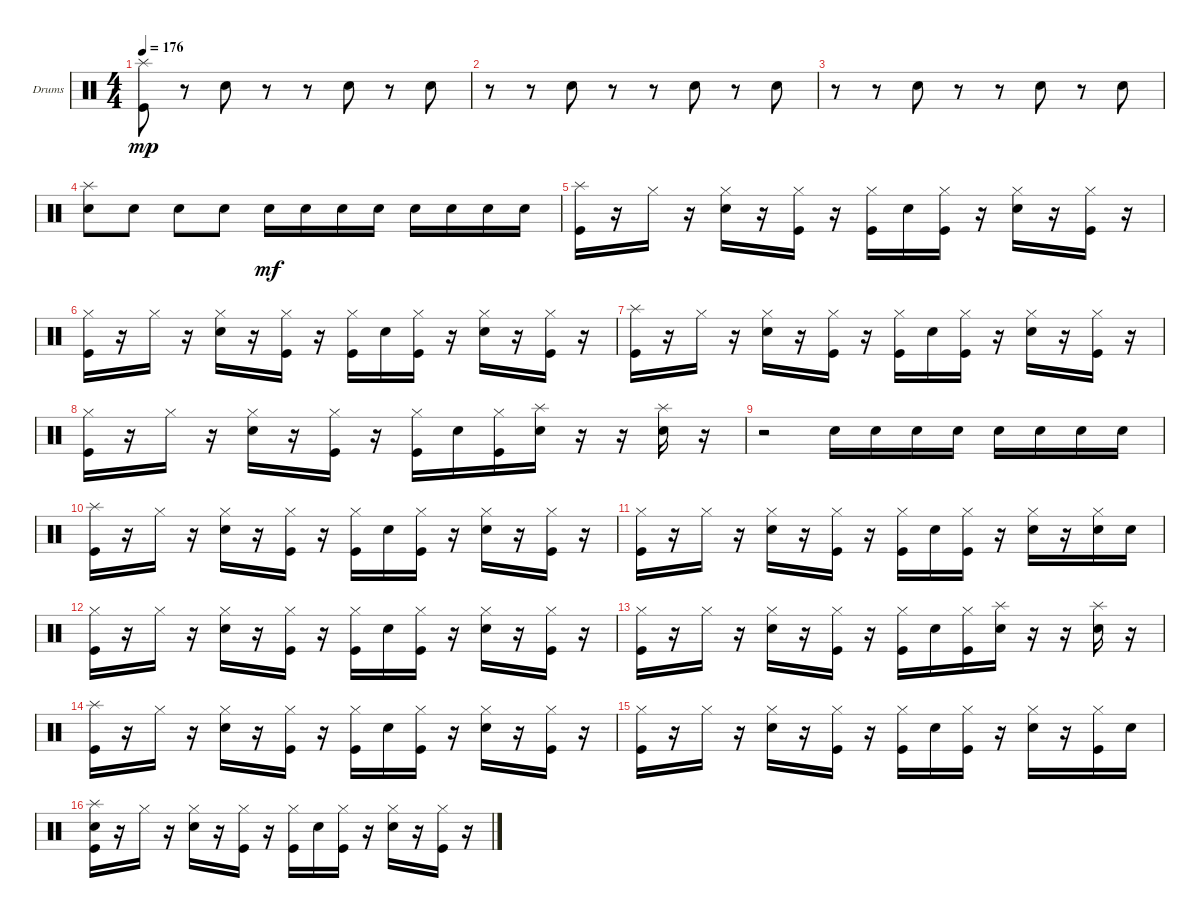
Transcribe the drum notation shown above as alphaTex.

\defaultSystemsLayout 4
\bracketExtendMode groupsimilarinstruments
\firstSystemTrackNameOrientation horizontal
\otherSystemsTrackNameOrientation horizontal
\track ("Drumkit" "Drums") {instrument percussion}
\staff {score}
\articulation defaults
\ts (4 4)
\tempo 176
\clef neutral
\scale
0.474178
\ks c
("Splash (hit)" "Kick (hit)").8{dy mp} r.8 "Snare (hit) 2".8 r.8 r.8 "Snare (hit) 2".8 r.8 "Snare (hit) 2".8 |
\scale
0.262911 r.8 r.8 "Snare (hit) 2".8 r.8 r.8 "Snare (hit) 2".8 r.8 "Snare (hit) 2".8 |
\scale
0.262911 r.8 r.8 "Snare (hit) 2".8 r.8 r.8 "Snare (hit) 2".8 r.8 "Snare (hit) 2".8 |
\scale
0.333333 ("Snare (hit) 2" "Splash (hit)").8 "Snare (hit) 2".8 "Snare (hit) 2".8 "Snare (hit) 2".8 "Snare (hit) 2".16{dy mf} "Snare (hit) 2".16 "Snare (hit) 2".16 "Snare (hit) 2".16 "Snare (hit) 2".16 "Snare (hit) 2".16 "Snare (hit) 2".16 "Snare (hit) 2".16 |
\scale
0.333333 ("Splash (hit)" "Kick (hit)").16 r.16 "Hi-Hat (closed)".16 r.16 ("Hi-Hat (closed)" "Snare (hit) 2").16 r.16 ("Hi-Hat (closed)" "Kick (hit)").16 r.16 ("Hi-Hat (closed)" "Kick (hit)").16 "Snare (hit) 2".16 ("Hi-Hat (closed)" "Kick (hit)").16 r.16 ("Hi-Hat (closed)" "Snare (hit) 2").16 r.16 ("Hi-Hat (closed)" "Kick (hit)").16 r.16 |
\scale
0.333333 ("Hi-Hat (closed)" "Kick (hit)").16 r.16 "Hi-Hat (closed)".16 r.16 ("Hi-Hat (closed)" "Snare (hit) 2").16 r.16 ("Hi-Hat (closed)" "Kick (hit)").16 r.16 ("Hi-Hat (closed)" "Kick (hit)").16 "Snare (hit) 2".16 ("Hi-Hat (closed)" "Kick (hit)").16 r.16 ("Hi-Hat (closed)" "Snare (hit) 2").16 r.16 ("Hi-Hat (closed)" "Kick (hit)").16 r.16 |
\scale
0.333333 ("Splash (hit)" "Kick (hit)").16 r.16 "Hi-Hat (closed)".16 r.16 ("Hi-Hat (closed)" "Snare (hit) 2").16 r.16 ("Hi-Hat (closed)" "Kick (hit)").16 r.16 ("Hi-Hat (closed)" "Kick (hit)").16 "Snare (hit) 2".16 ("Hi-Hat (closed)" "Kick (hit)").16 r.16 ("Hi-Hat (closed)" "Snare (hit) 2").16 r.16 ("Hi-Hat (closed)" "Kick (hit)").16 r.16 |
\scale
0.333333 ("Hi-Hat (closed)" "Kick (hit)").16 r.16 "Hi-Hat (closed)".16 r.16 ("Hi-Hat (closed)" "Snare (hit) 2").16 r.16 ("Hi-Hat (closed)" "Kick (hit)").16 r.16 ("Hi-Hat (closed)" "Kick (hit)").16 "Snare (hit) 2".16 ("Hi-Hat (closed)" "Kick (hit)").16 ("Splash (hit)" "Snare (hit) 2").16 r.16 r.16 ("Splash (hit)" "Snare (hit) 2").16 r.16 |
\scale
0.333333 r.2 "Snare (hit) 2".16 "Snare (hit) 2".16 "Snare (hit) 2".16 "Snare (hit) 2".16 "Snare (hit) 2".16 "Snare (hit) 2".16 "Snare (hit) 2".16 "Snare (hit) 2".16 |
\scale
0.333333 ("Splash (hit)" "Kick (hit)").16 r.16 "Hi-Hat (closed)".16 r.16 ("Hi-Hat (closed)" "Snare (hit) 2").16 r.16 ("Hi-Hat (closed)" "Kick (hit)").16 r.16 ("Hi-Hat (closed)" "Kick (hit)").16 "Snare (hit) 2".16 ("Hi-Hat (closed)" "Kick (hit)").16 r.16 ("Hi-Hat (closed)" "Snare (hit) 2").16 r.16 ("Hi-Hat (closed)" "Kick (hit)").16 r.16 |
\scale
0.333333 ("Hi-Hat (closed)" "Kick (hit)").16 r.16 "Hi-Hat (closed)".16 r.16 ("Hi-Hat (closed)" "Snare (hit) 2").16 r.16 ("Hi-Hat (closed)" "Kick (hit)").16 r.16 ("Hi-Hat (closed)" "Kick (hit)").16 "Snare (hit) 2".16 ("Hi-Hat (closed)" "Kick (hit)").16 r.16 ("Hi-Hat (closed)" "Snare (hit) 2").16 r.16 ("Hi-Hat (closed)" "Snare (hit) 2").16 "Snare (hit) 2".16 |
\scale
0.333333 ("Hi-Hat (closed)" "Kick (hit)").16 r.16 "Hi-Hat (closed)".16 r.16 ("Hi-Hat (closed)" "Snare (hit) 2").16 r.16 ("Hi-Hat (closed)" "Kick (hit)").16 r.16 ("Hi-Hat (closed)" "Kick (hit)").16 "Snare (hit) 2".16 ("Hi-Hat (closed)" "Kick (hit)").16 r.16 ("Hi-Hat (closed)" "Snare (hit) 2").16 r.16 ("Hi-Hat (closed)" "Kick (hit)").16 r.16 |
\scale
0.333333 ("Hi-Hat (closed)" "Kick (hit)").16 r.16 "Hi-Hat (closed)".16 r.16 ("Hi-Hat (closed)" "Snare (hit) 2").16 r.16 ("Hi-Hat (closed)" "Kick (hit)").16 r.16 ("Hi-Hat (closed)" "Kick (hit)").16 "Snare (hit) 2".16 ("Hi-Hat (closed)" "Kick (hit)").16 ("Splash (hit)" "Snare (hit) 2").16 r.16 r.16 ("Splash (hit)" "Snare (hit) 2").16 r.16 |
\scale
0.333333 ("Splash (hit)" "Kick (hit)").16 r.16 "Hi-Hat (closed)".16 r.16 ("Hi-Hat (closed)" "Snare (hit) 2").16 r.16 ("Hi-Hat (closed)" "Kick (hit)").16 r.16 ("Hi-Hat (closed)" "Kick (hit)").16 "Snare (hit) 2".16 ("Hi-Hat (closed)" "Kick (hit)").16 r.16 ("Hi-Hat (closed)" "Snare (hit) 2").16 r.16 ("Hi-Hat (closed)" "Kick (hit)").16 r.16 |
\scale
0.333333 ("Hi-Hat (closed)" "Kick (hit)").16 r.16 "Hi-Hat (closed)".16 r.16 ("Hi-Hat (closed)" "Snare (hit) 2").16 r.16 ("Hi-Hat (closed)" "Kick (hit)").16 r.16 ("Hi-Hat (closed)" "Kick (hit)").16 "Snare (hit) 2".16 ("Hi-Hat (closed)" "Kick (hit)").16 r.16 ("Hi-Hat (closed)" "Snare (hit) 2").16 r.16 ("Hi-Hat (closed)" "Kick (hit)").16 "Snare (hit) 2".16 |
\scale
0.333333 ("Kick (hit)" "Snare (hit) 2" "Splash (hit)").16 r.16 "Hi-Hat (closed)".16 r.16 ("Hi-Hat (closed)" "Snare (hit) 2").16 r.16 ("Hi-Hat (closed)" "Kick (hit)").16 r.16 ("Hi-Hat (closed)" "Kick (hit)").16 "Snare (hit) 2".16 ("Hi-Hat (closed)" "Kick (hit)").16 r.16 ("Hi-Hat (closed)" "Snare (hit) 2").16 r.16 ("Hi-Hat (closed)" "Kick (hit)").16 r.16
